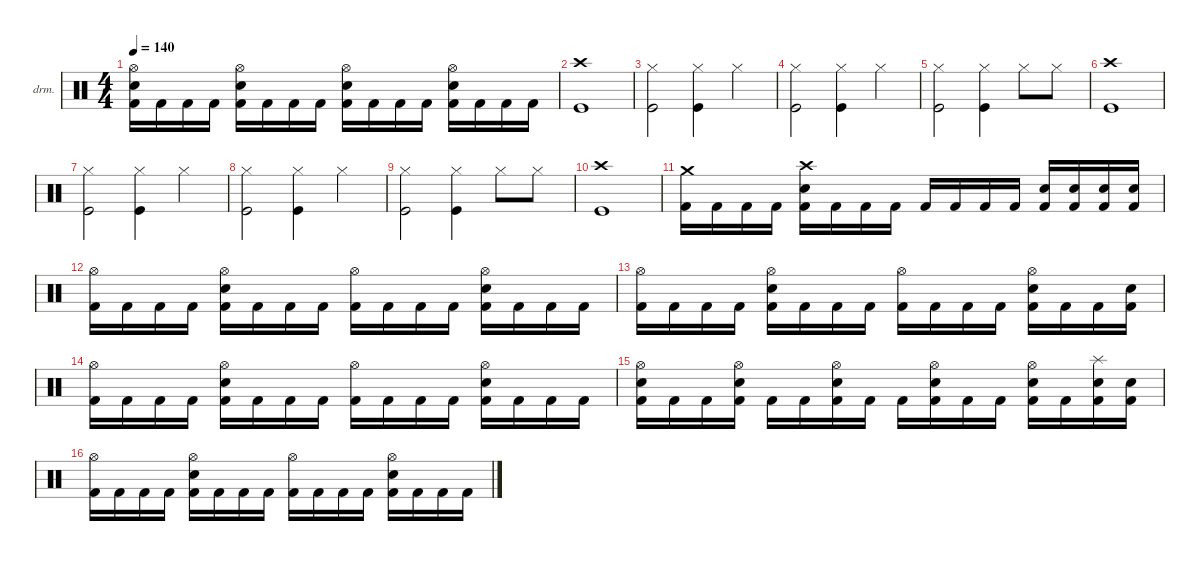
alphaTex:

\defaultSystemsLayout 4
\hideDynamics
\bracketExtendMode nobrackets
\firstSystemTrackNameOrientation horizontal
\otherSystemsTrackNameOrientation horizontal
\track ("Drumkit" "drm.") {instrument percussion}
\staff {score}
\articulation defaults
\ts (4 4)
\tempo 140
\clef neutral
\ks c
("Hi-Hat (open)" "Snare (hit) 2" "Kick (hit) 2").16{dy mf} "Kick (hit) 2".16 "Kick (hit) 2".16 "Kick (hit) 2".16 ("Hi-Hat (open)" "Snare (hit) 2" "Kick (hit) 2").16 "Kick (hit) 2".16 "Kick (hit) 2".16 "Kick (hit) 2".16 ("Hi-Hat (open)" "Snare (hit) 2" "Kick (hit) 2").16 "Kick (hit) 2".16 "Kick (hit) 2".16 "Kick (hit) 2".16 ("Hi-Hat (open)" "Snare (hit) 2" "Kick (hit) 2").16 "Kick (hit) 2".16 "Kick (hit) 2".16 "Kick (hit) 2".16 |
("Crash high (hit)" "Kick (hit)").1 |
("Kick (hit)" "Hi-Hat (closed)").2 ("Kick (hit)" "Hi-Hat (closed)").4 "Hi-Hat (closed)".4 |
("Kick (hit)" "Hi-Hat (closed)").2 ("Kick (hit)" "Hi-Hat (closed)").4 "Hi-Hat (closed)".4 |
("Kick (hit)" "Hi-Hat (closed)").2 ("Kick (hit)" "Hi-Hat (closed)").4 "Hi-Hat (closed)".8 "Hi-Hat (closed)".8 |
("Crash high (hit)" "Kick (hit)").1 |
("Kick (hit)" "Hi-Hat (closed)").2 ("Kick (hit)" "Hi-Hat (closed)").4 "Hi-Hat (closed)".4 |
("Kick (hit)" "Hi-Hat (closed)").2 ("Kick (hit)" "Hi-Hat (closed)").4 "Hi-Hat (closed)".4 |
("Kick (hit)" "Hi-Hat (closed)").2 ("Kick (hit)" "Hi-Hat (closed)").4 "Hi-Hat (closed)".8 "Hi-Hat (closed)".8 |
("Crash high (hit)" "Kick (hit)").1 |
("Crash medium (hit)" "Kick (hit) 2").16{dy f} "Kick (hit) 2".16 "Kick (hit) 2".16 "Kick (hit) 2".16 ("Crash high (hit)" "Snare (hit) 2" "Kick (hit) 2").16 "Kick (hit) 2".16 "Kick (hit) 2".16 "Kick (hit) 2".16 "Kick (hit) 2".16 "Kick (hit) 2".16 "Kick (hit) 2".16 "Kick (hit) 2".16 ("Snare (hit) 2" "Kick (hit) 2").16 ("Snare (hit) 2" "Kick (hit) 2").16 ("Snare (hit) 2" "Kick (hit) 2").16 ("Snare (hit) 2" "Kick (hit) 2").16 |
("Hi-Hat (open)" "Kick (hit) 2").16{dy ff} "Kick (hit) 2".16 "Kick (hit) 2".16 "Kick (hit) 2".16 ("Hi-Hat (open)" "Snare (hit) 2" "Kick (hit) 2").16 "Kick (hit) 2".16 "Kick (hit) 2".16 "Kick (hit) 2".16 ("Hi-Hat (open)" "Kick (hit) 2").16 "Kick (hit) 2".16 "Kick (hit) 2".16 "Kick (hit) 2".16 ("Hi-Hat (open)" "Snare (hit) 2" "Kick (hit) 2").16 "Kick (hit) 2".16 "Kick (hit) 2".16 "Kick (hit) 2".16 |
("Hi-Hat (open)" "Kick (hit) 2").16 "Kick (hit) 2".16 "Kick (hit) 2".16 "Kick (hit) 2".16 ("Hi-Hat (open)" "Snare (hit) 2" "Kick (hit) 2").16 "Kick (hit) 2".16 "Kick (hit) 2".16 "Kick (hit) 2".16 ("Hi-Hat (open)" "Kick (hit) 2").16 "Kick (hit) 2".16 "Kick (hit) 2".16 "Kick (hit) 2".16 ("Hi-Hat (open)" "Snare (hit) 2" "Kick (hit) 2").16 "Kick (hit) 2".16 "Kick (hit) 2".16 ("Snare (hit) 2" "Kick (hit) 2").16 |
("Hi-Hat (open)" "Kick (hit) 2").16 "Kick (hit) 2".16 "Kick (hit) 2".16 "Kick (hit) 2".16 ("Hi-Hat (open)" "Snare (hit) 2" "Kick (hit) 2").16 "Kick (hit) 2".16 "Kick (hit) 2".16 "Kick (hit) 2".16 ("Hi-Hat (open)" "Kick (hit) 2").16 "Kick (hit) 2".16 "Kick (hit) 2".16 "Kick (hit) 2".16 ("Hi-Hat (open)" "Snare (hit) 2" "Kick (hit) 2").16 "Kick (hit) 2".16 "Kick (hit) 2".16 "Kick (hit) 2".16 |
("Hi-Hat (open)" "Snare (hit) 2" "Kick (hit) 2").16 "Kick (hit) 2".16 "Kick (hit) 2".16 ("Hi-Hat (open)" "Snare (hit) 2" "Kick (hit) 2").16 "Kick (hit) 2".16 "Kick (hit) 2".16 ("Hi-Hat (open)" "Snare (hit) 2" "Kick (hit) 2").16 "Kick (hit) 2".16 "Kick (hit) 2".16 ("Hi-Hat (open)" "Snare (hit) 2" "Kick (hit) 2").16 "Kick (hit) 2".16 "Kick (hit) 2".16 ("Hi-Hat (open)" "Snare (hit) 2" "Kick (hit) 2").16 "Kick (hit) 2".16 ("Splash (hit)" "Snare (hit) 2" "Kick (hit) 2").16 ("Snare (hit) 2" "Kick (hit) 2").16 |
("Hi-Hat (open)" "Kick (hit) 2").16 "Kick (hit) 2".16 "Kick (hit) 2".16 "Kick (hit) 2".16 ("Hi-Hat (open)" "Snare (hit) 2" "Kick (hit) 2").16 "Kick (hit) 2".16 "Kick (hit) 2".16 "Kick (hit) 2".16 ("Hi-Hat (open)" "Kick (hit) 2").16 "Kick (hit) 2".16 "Kick (hit) 2".16 "Kick (hit) 2".16 ("Hi-Hat (open)" "Snare (hit) 2" "Kick (hit) 2").16 "Kick (hit) 2".16 "Kick (hit) 2".16 "Kick (hit) 2".16
